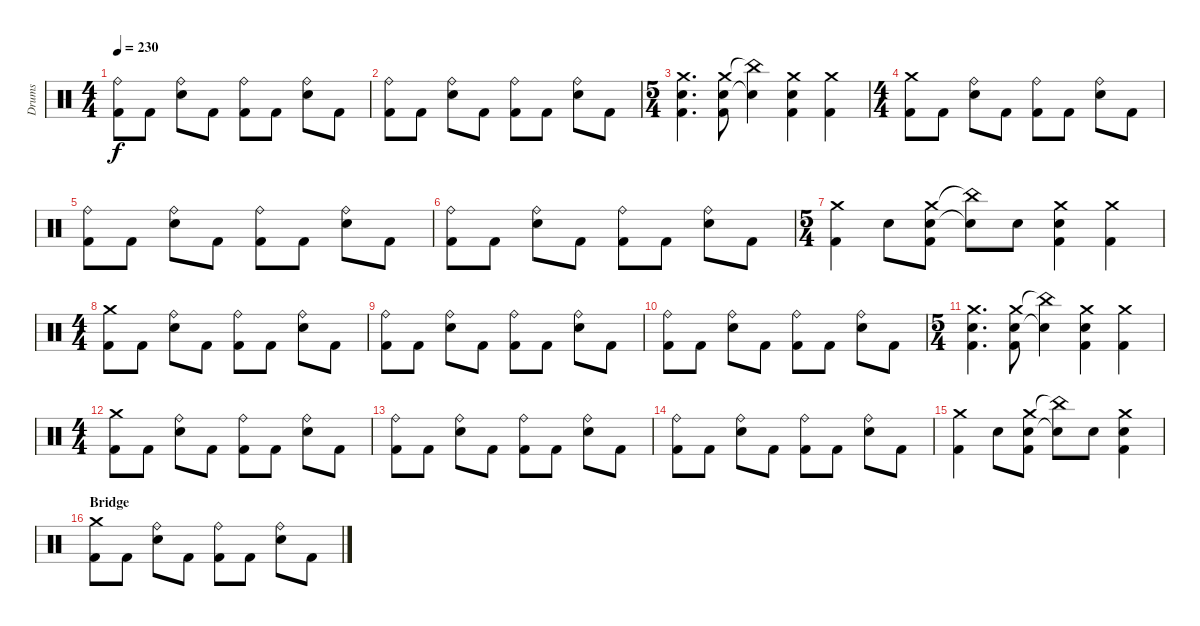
\track ("Drums" "Drums") {instrument percussion}
\staff {score}
\articulation defaults
\ts (4 4)
\tempo 230
\clef neutral
\ks c
("Ride (bell)" "Kick (hit) 2").8{dy f} "Kick (hit) 2".8 ("Ride (bell)" "Snare (hit) 2").8 "Kick (hit) 2".8 ("Ride (bell)" "Kick (hit) 2").8 "Kick (hit) 2".8 ("Ride (bell)" "Snare (hit) 2").8 "Kick (hit) 2".8 |
("Ride (bell)" "Kick (hit) 2").8 "Kick (hit) 2".8 ("Ride (bell)" "Snare (hit) 2").8 "Kick (hit) 2".8 ("Ride (bell)" "Kick (hit) 2").8 "Kick (hit) 2".8 ("Ride (bell)" "Snare (hit) 2").8 "Kick (hit) 2".8 |
\ts (5 4)
("Crash medium (hit)" "Snare (hit) 2" "Kick (hit) 2").4{d} ("Crash medium (hit)" "Snare (hit) 2" "Kick (hit) 2").8 ("China (hit)"{t} "Snare (hit) 2"{t}).4 ("Crash medium (hit)" "Snare (hit) 2" "Kick (hit) 2").4 ("Crash medium (hit)" "Kick (hit) 2").4 |
\ts (4 4)
("Crash medium (hit)" "Kick (hit) 2").8 "Kick (hit) 2".8 ("Ride (bell)" "Snare (hit) 2").8 "Kick (hit) 2".8 ("Ride (bell)" "Kick (hit) 2").8 "Kick (hit) 2".8 ("Ride (bell)" "Snare (hit) 2").8 "Kick (hit) 2".8 |
("Ride (bell)" "Kick (hit) 2").8 "Kick (hit) 2".8 ("Ride (bell)" "Snare (hit) 2").8 "Kick (hit) 2".8 ("Ride (bell)" "Kick (hit) 2").8 "Kick (hit) 2".8 ("Ride (bell)" "Snare (hit) 2").8 "Kick (hit) 2".8 |
("Ride (bell)" "Kick (hit) 2").8 "Kick (hit) 2".8 ("Ride (bell)" "Snare (hit) 2").8 "Kick (hit) 2".8 ("Ride (bell)" "Kick (hit) 2").8 "Kick (hit) 2".8 ("Ride (bell)" "Snare (hit) 2").8 "Kick (hit) 2".8 |
\ts (5 4)
("Crash medium (hit)" "Kick (hit) 2").4 "Snare (hit) 2".8 ("Crash medium (hit)" "Snare (hit) 2" "Kick (hit) 2").8 ("China (hit)"{t} "Snare (hit) 2"{t}).8 "Snare (hit) 2".8 ("Crash medium (hit)" "Snare (hit) 2" "Kick (hit) 2").4 ("Crash medium (hit)" "Kick (hit) 2").4 |
\ts (4 4)
("Crash medium (hit)" "Kick (hit) 2").8 "Kick (hit) 2".8 ("Ride (bell)" "Snare (hit) 2").8 "Kick (hit) 2".8 ("Ride (bell)" "Kick (hit) 2").8 "Kick (hit) 2".8 ("Ride (bell)" "Snare (hit) 2").8 "Kick (hit) 2".8 |
("Ride (bell)" "Kick (hit) 2").8 "Kick (hit) 2".8 ("Ride (bell)" "Snare (hit) 2").8 "Kick (hit) 2".8 ("Ride (bell)" "Kick (hit) 2").8 "Kick (hit) 2".8 ("Ride (bell)" "Snare (hit) 2").8 "Kick (hit) 2".8 |
("Ride (bell)" "Kick (hit) 2").8 "Kick (hit) 2".8 ("Ride (bell)" "Snare (hit) 2").8 "Kick (hit) 2".8 ("Ride (bell)" "Kick (hit) 2").8 "Kick (hit) 2".8 ("Ride (bell)" "Snare (hit) 2").8 "Kick (hit) 2".8 |
\ts (5 4)
("Crash medium (hit)" "Snare (hit) 2" "Kick (hit) 2").4{d} ("Crash medium (hit)" "Snare (hit) 2" "Kick (hit) 2").8 ("China (hit)"{t} "Snare (hit) 2"{t}).4 ("Crash medium (hit)" "Snare (hit) 2" "Kick (hit) 2").4 ("Crash medium (hit)" "Kick (hit) 2").4 |
\ts (4 4)
("Crash medium (hit)" "Kick (hit) 2").8 "Kick (hit) 2".8 ("Ride (bell)" "Snare (hit) 2").8 "Kick (hit) 2".8 ("Ride (bell)" "Kick (hit) 2").8 "Kick (hit) 2".8 ("Ride (bell)" "Snare (hit) 2").8 "Kick (hit) 2".8 |
("Ride (bell)" "Kick (hit) 2").8 "Kick (hit) 2".8 ("Ride (bell)" "Snare (hit) 2").8 "Kick (hit) 2".8 ("Ride (bell)" "Kick (hit) 2").8 "Kick (hit) 2".8 ("Ride (bell)" "Snare (hit) 2").8 "Kick (hit) 2".8 |
("Ride (bell)" "Kick (hit) 2").8 "Kick (hit) 2".8 ("Ride (bell)" "Snare (hit) 2").8 "Kick (hit) 2".8 ("Ride (bell)" "Kick (hit) 2").8 "Kick (hit) 2".8 ("Ride (bell)" "Snare (hit) 2").8 "Kick (hit) 2".8 |
("Crash medium (hit)" "Kick (hit) 2").4 "Snare (hit) 2".8 ("Crash medium (hit)" "Snare (hit) 2" "Kick (hit) 2").8 ("China (hit)"{t} "Snare (hit) 2"{t}).8 "Snare (hit) 2".8 ("Crash medium (hit)" "Snare (hit) 2" "Kick (hit) 2").4 |
\section ("" "Bridge")
("Crash medium (hit)" "Kick (hit) 2").8 "Kick (hit) 2".8 ("Ride (bell)" "Snare (hit) 2").8 "Kick (hit) 2".8 ("Ride (bell)" "Kick (hit) 2").8 "Kick (hit) 2".8 ("Ride (bell)" "Snare (hit) 2").8 "Kick (hit) 2".8
